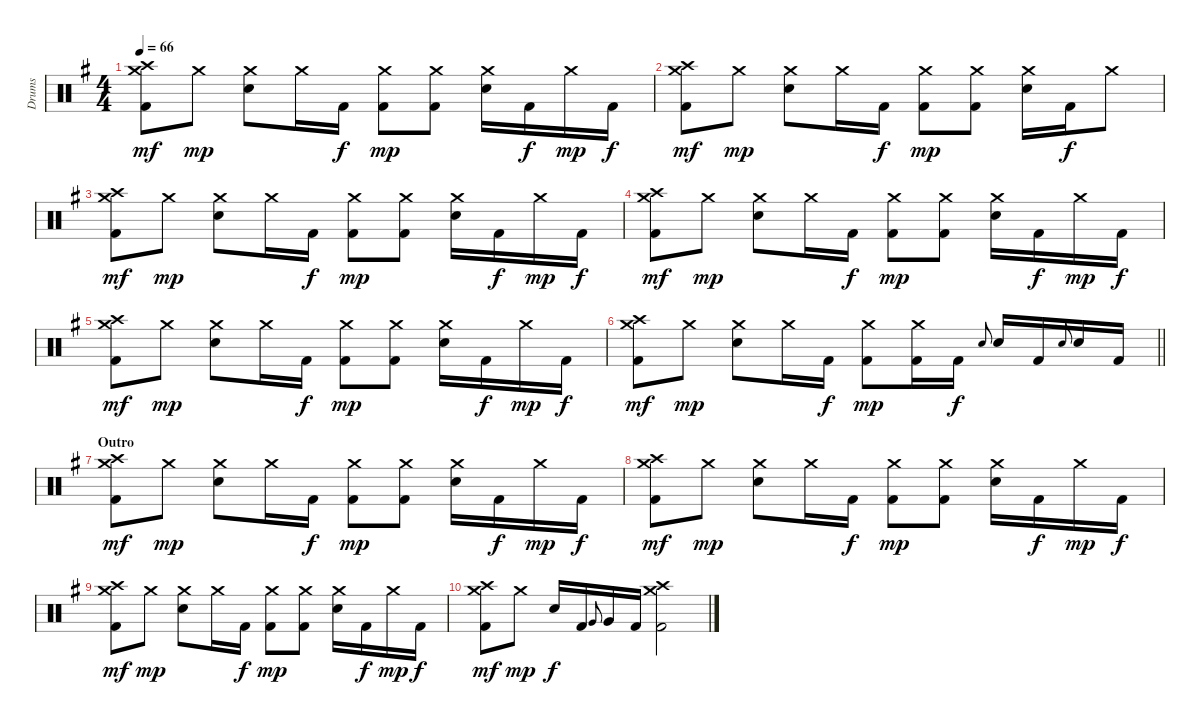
\track ("Drums" "Drums") {instrument percussion}
\staff {score}
\articulation defaults
\ts (4 4)
\tempo 66
\clef neutral
\ks g
("Crash high (hit)" "Crash medium (hit)" "Kick (hit) 2").8{dy mf} "Crash medium (hit)".8{dy mp} ("Crash medium (hit)" "Electric Snare (hit)").8 "Crash medium (hit)".16 "Kick (hit) 2".16{dy f} ("Crash medium (hit)" "Kick (hit) 2").8{dy mp} ("Crash medium (hit)" "Kick (hit) 2").8 ("Crash medium (hit)" "Electric Snare (hit)").16 "Kick (hit) 2".16{dy f} "Crash medium (hit)".16{dy mp} "Kick (hit) 2".16{dy f} |
("Crash high (hit)" "Crash medium (hit)" "Kick (hit) 2").8{dy mf} "Crash medium (hit)".8{dy mp} ("Crash medium (hit)" "Electric Snare (hit)").8 "Crash medium (hit)".16 "Kick (hit) 2".16{dy f} ("Crash medium (hit)" "Kick (hit) 2").8{dy mp} ("Crash medium (hit)" "Kick (hit) 2").8 ("Crash medium (hit)" "Electric Snare (hit)").16 "Kick (hit) 2".16{dy f} "Crash medium (hit)".8 |
("Crash high (hit)" "Crash medium (hit)" "Kick (hit) 2").8{dy mf} "Crash medium (hit)".8{dy mp} ("Crash medium (hit)" "Electric Snare (hit)").8 "Crash medium (hit)".16 "Kick (hit) 2".16{dy f} ("Crash medium (hit)" "Kick (hit) 2").8{dy mp} ("Crash medium (hit)" "Kick (hit) 2").8 ("Crash medium (hit)" "Electric Snare (hit)").16 "Kick (hit) 2".16{dy f} "Crash medium (hit)".16{dy mp} "Kick (hit) 2".16{dy f} |
("Crash high (hit)" "Crash medium (hit)" "Kick (hit) 2").8{dy mf} "Crash medium (hit)".8{dy mp} ("Crash medium (hit)" "Electric Snare (hit)").8 "Crash medium (hit)".16 "Kick (hit) 2".16{dy f} ("Crash medium (hit)" "Kick (hit) 2").8{dy mp} ("Crash medium (hit)" "Kick (hit) 2").8 ("Crash medium (hit)" "Electric Snare (hit)").16 "Kick (hit) 2".16{dy f} "Crash medium (hit)".16{dy mp} "Kick (hit) 2".16{dy f} |
("Crash high (hit)" "Crash medium (hit)" "Kick (hit) 2").8{dy mf} "Crash medium (hit)".8{dy mp} ("Crash medium (hit)" "Electric Snare (hit)").8 "Crash medium (hit)".16 "Kick (hit) 2".16{dy f} ("Crash medium (hit)" "Kick (hit) 2").8{dy mp} ("Crash medium (hit)" "Kick (hit) 2").8 ("Crash medium (hit)" "Electric Snare (hit)").16 "Kick (hit) 2".16{dy f} "Crash medium (hit)".16{dy mp} "Kick (hit) 2".16{dy f} |
\barLineRight lightlight
("Crash high (hit)" "Crash medium (hit)" "Kick (hit) 2").8{dy mf} "Crash medium (hit)".8{dy mp} ("Crash medium (hit)" "Electric Snare (hit)").8 "Crash medium (hit)".16 "Kick (hit) 2".16{dy f} ("Crash medium (hit)" "Kick (hit) 2").8{dy mp} ("Crash medium (hit)" "Kick (hit) 2").16 "Kick (hit) 2".16{dy f} "Electric Snare (hit)".8{gr onbeat} "Electric Snare (hit)".16 "Kick (hit) 2".16 "Electric Snare (hit)".8{gr onbeat} "Electric Snare (hit)".16 "Kick (hit) 2".16 |
\section ("" "Outro")
("Crash high (hit)" "Crash medium (hit)" "Kick (hit) 2").8{dy mf} "Crash medium (hit)".8{dy mp} ("Crash medium (hit)" "Electric Snare (hit)").8 "Crash medium (hit)".16 "Kick (hit) 2".16{dy f} ("Crash medium (hit)" "Kick (hit) 2").8{dy mp} ("Crash medium (hit)" "Kick (hit) 2").8 ("Crash medium (hit)" "Electric Snare (hit)").16 "Kick (hit) 2".16{dy f} "Crash medium (hit)".16{dy mp} "Kick (hit) 2".16{dy f} |
("Crash high (hit)" "Crash medium (hit)" "Kick (hit) 2").8{dy mf} "Crash medium (hit)".8{dy mp} ("Crash medium (hit)" "Electric Snare (hit)").8 "Crash medium (hit)".16 "Kick (hit) 2".16{dy f} ("Crash medium (hit)" "Kick (hit) 2").8{dy mp} ("Crash medium (hit)" "Kick (hit) 2").8 ("Crash medium (hit)" "Electric Snare (hit)").16 "Kick (hit) 2".16{dy f} "Crash medium (hit)".16{dy mp} "Kick (hit) 2".16{dy f} |
("Crash high (hit)" "Crash medium (hit)" "Kick (hit) 2").8{dy mf} "Crash medium (hit)".8{dy mp} ("Crash medium (hit)" "Electric Snare (hit)").8 "Crash medium (hit)".16 "Kick (hit) 2".16{dy f} ("Crash medium (hit)" "Kick (hit) 2").8{dy mp} ("Crash medium (hit)" "Kick (hit) 2").8 ("Crash medium (hit)" "Electric Snare (hit)").16 "Kick (hit) 2".16{dy f} "Crash medium (hit)".16{dy mp} "Kick (hit) 2".16{dy f} |
("Crash high (hit)" "Crash medium (hit)" "Kick (hit) 2").8{dy mf} "Crash medium (hit)".8{dy mp} "Electric Snare (hit)".16{dy f} "Kick (hit) 2".16 "Very Low Tom (hit)".8{gr onbeat} "Very Low Tom (hit)".16 "Kick (hit) 2".16 ("Crash high (hit)" "Crash medium (hit)" "Kick (hit) 2").2
